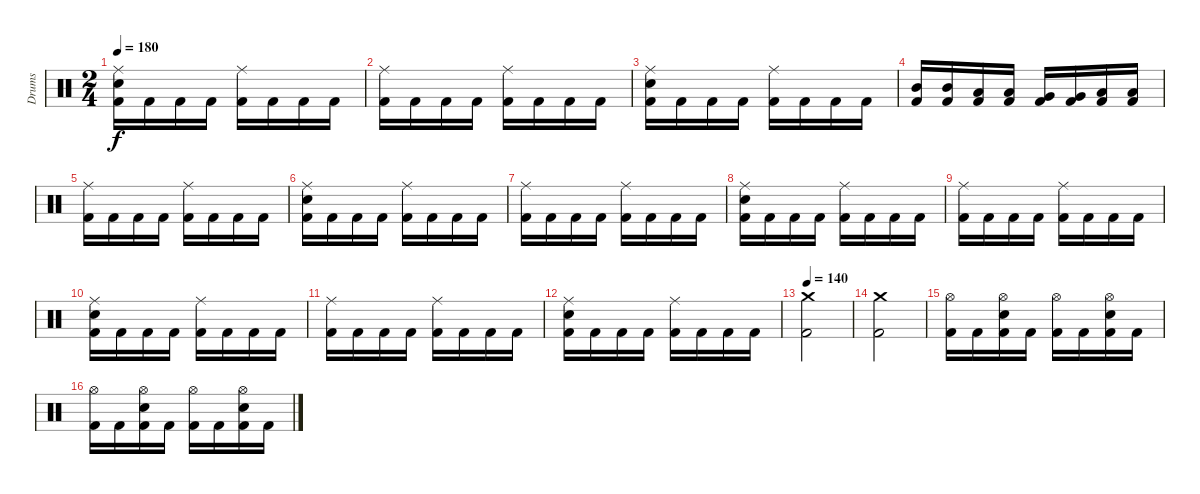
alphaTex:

\track ("Drums" "Drums") {instrument percussion}
\staff {score}
\articulation defaults
\ts (2 4)
\tempo 180
\clef neutral
\ks c
("Kick (hit) 2" "Electric Snare (hit)" "Ride (middle)").16{dy f} "Kick (hit) 2".16 "Kick (hit) 2".16 "Kick (hit) 2".16 ("Kick (hit) 2" "Ride (middle)").16 "Kick (hit) 2".16 "Kick (hit) 2".16 "Kick (hit) 2".16 |
("Kick (hit) 2" "Ride (middle)").16 "Kick (hit) 2".16 "Kick (hit) 2".16 "Kick (hit) 2".16 ("Kick (hit) 2" "Ride (middle)").16 "Kick (hit) 2".16 "Kick (hit) 2".16 "Kick (hit) 2".16 |
("Kick (hit) 2" "Electric Snare (hit)" "Ride (middle)").16 "Kick (hit) 2".16 "Kick (hit) 2".16 "Kick (hit) 2".16 ("Kick (hit) 2" "Ride (middle)").16 "Kick (hit) 2".16 "Kick (hit) 2".16 "Kick (hit) 2".16 |
("Kick (hit) 2" "Mid Tom (hit)").16 ("Kick (hit) 2" "Mid Tom (hit)").16 ("Kick (hit) 2" "Low Tom (hit)").16 ("Kick (hit) 2" "Low Tom (hit)").16 ("Kick (hit) 2" "Very Low Tom (hit)").16 ("Kick (hit) 2" "Very Low Tom (hit)").16 ("Kick (hit) 2" "Low Floor Tom (hit)").16 ("Kick (hit) 2" "Low Floor Tom (hit)").16 |
("Kick (hit) 2" "Ride (middle)").16 "Kick (hit) 2".16 "Kick (hit) 2".16 "Kick (hit) 2".16 ("Kick (hit) 2" "Ride (middle)").16 "Kick (hit) 2".16 "Kick (hit) 2".16 "Kick (hit) 2".16 |
("Kick (hit) 2" "Electric Snare (hit)" "Ride (middle)").16 "Kick (hit) 2".16 "Kick (hit) 2".16 "Kick (hit) 2".16 ("Kick (hit) 2" "Ride (middle)").16 "Kick (hit) 2".16 "Kick (hit) 2".16 "Kick (hit) 2".16 |
("Kick (hit) 2" "Ride (middle)").16 "Kick (hit) 2".16 "Kick (hit) 2".16 "Kick (hit) 2".16 ("Kick (hit) 2" "Ride (middle)").16 "Kick (hit) 2".16 "Kick (hit) 2".16 "Kick (hit) 2".16 |
("Kick (hit) 2" "Electric Snare (hit)" "Ride (middle)").16 "Kick (hit) 2".16 "Kick (hit) 2".16 "Kick (hit) 2".16 ("Kick (hit) 2" "Ride (middle)").16 "Kick (hit) 2".16 "Kick (hit) 2".16 "Kick (hit) 2".16 |
("Kick (hit) 2" "Ride (middle)").16 "Kick (hit) 2".16 "Kick (hit) 2".16 "Kick (hit) 2".16 ("Kick (hit) 2" "Ride (middle)").16 "Kick (hit) 2".16 "Kick (hit) 2".16 "Kick (hit) 2".16 |
("Kick (hit) 2" "Electric Snare (hit)" "Ride (middle)").16 "Kick (hit) 2".16 "Kick (hit) 2".16 "Kick (hit) 2".16 ("Kick (hit) 2" "Ride (middle)").16 "Kick (hit) 2".16 "Kick (hit) 2".16 "Kick (hit) 2".16 |
("Kick (hit) 2" "Ride (middle)").16 "Kick (hit) 2".16 "Kick (hit) 2".16 "Kick (hit) 2".16 ("Kick (hit) 2" "Ride (middle)").16 "Kick (hit) 2".16 "Kick (hit) 2".16 "Kick (hit) 2".16 |
("Kick (hit) 2" "Electric Snare (hit)" "Ride (middle)").16 "Kick (hit) 2".16 "Kick (hit) 2".16 "Kick (hit) 2".16 ("Kick (hit) 2" "Ride (middle)").16 "Kick (hit) 2".16 "Kick (hit) 2".16 "Kick (hit) 2".16 |
\tempo 140
("Kick (hit) 2" "Crash medium (hit)").2{volume 16} |
("Kick (hit) 2" "Crash medium (hit)").2 |
("Kick (hit) 2" "Hi-Hat (open)").16 "Kick (hit) 2".16 ("Kick (hit) 2" "Electric Snare (hit)" "Hi-Hat (open)").16 "Kick (hit) 2".16 ("Kick (hit) 2" "Hi-Hat (open)").16 "Kick (hit) 2".16 ("Kick (hit) 2" "Electric Snare (hit)" "Hi-Hat (open)").16 "Kick (hit) 2".16 |
("Kick (hit) 2" "Hi-Hat (open)").16 "Kick (hit) 2".16 ("Kick (hit) 2" "Electric Snare (hit)" "Hi-Hat (open)").16 "Kick (hit) 2".16 ("Kick (hit) 2" "Hi-Hat (open)").16 "Kick (hit) 2".16 ("Kick (hit) 2" "Electric Snare (hit)" "Hi-Hat (open)").16 "Kick (hit) 2".16
